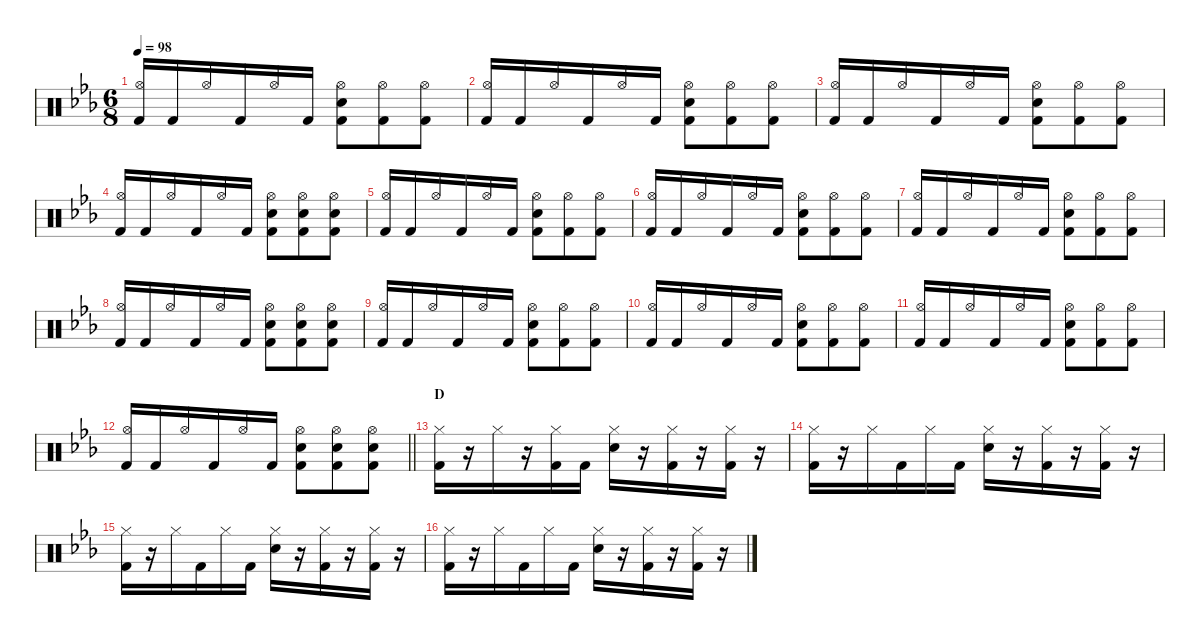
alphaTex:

\defaultSystemsLayout 4
\hideDynamics
\bracketExtendMode nobrackets
\singleTrackTrackNamePolicy hidden
\multiTrackTrackNamePolicy hidden
\firstSystemTrackNameMode fullname
\firstSystemTrackNameOrientation horizontal
\otherSystemsTrackNameOrientation horizontal
\track ("Gene Hogland" "drm.") {instrument percussion}
\staff {score}
\articulation defaults
\ts (6 8)
\tempo 98
\clef neutral
\ks eb
("Hi-Hat (open)"{acc forcenatural} "Kick (hit) 2"{acc forcenatural}).16{dy f beam Up} "Kick (hit) 2"{acc forcenatural}.16{beam Up} "Hi-Hat (open)"{acc forcenatural}.16{beam Up} "Kick (hit) 2"{acc forcenatural}.16{beam Up} "Hi-Hat (open)"{acc forcenatural}.16{beam Down} "Kick (hit) 2"{acc forcenatural}.16{beam Down} ("Hi-Hat (open)"{acc forcenatural} "Snare (hit) 2"{acc forcenatural} "Kick (hit) 2"{acc forcenatural}).8{beam Down} ("Hi-Hat (open)"{acc forcenatural} "Kick (hit) 2"{acc forcenatural}).8{beam Down} ("Hi-Hat (open)"{acc forcenatural} "Kick (hit) 2"{acc forcenatural}).8{beam Down} |
("Hi-Hat (open)"{acc forcenatural} "Kick (hit) 2"{acc forcenatural}).16{beam Up} "Kick (hit) 2"{acc forcenatural}.16{beam Up} "Hi-Hat (open)"{acc forcenatural}.16{beam Up} "Kick (hit) 2"{acc forcenatural}.16{beam Up} "Hi-Hat (open)"{acc forcenatural}.16{beam Down} "Kick (hit) 2"{acc forcenatural}.16{beam Down} ("Hi-Hat (open)"{acc forcenatural} "Snare (hit) 2"{acc forcenatural} "Kick (hit) 2"{acc forcenatural}).8{beam Down} ("Hi-Hat (open)"{acc forcenatural} "Kick (hit) 2"{acc forcenatural}).8{beam Down} ("Hi-Hat (open)"{acc forcenatural} "Kick (hit) 2"{acc forcenatural}).8{beam Down} |
("Hi-Hat (open)"{acc forcenatural} "Kick (hit) 2"{acc forcenatural}).16{beam Up} "Kick (hit) 2"{acc forcenatural}.16{beam Up} "Hi-Hat (open)"{acc forcenatural}.16{beam Up} "Kick (hit) 2"{acc forcenatural}.16{beam Up} "Hi-Hat (open)"{acc forcenatural}.16{beam Down} "Kick (hit) 2"{acc forcenatural}.16{beam Down} ("Hi-Hat (open)"{acc forcenatural} "Snare (hit) 2"{acc forcenatural} "Kick (hit) 2"{acc forcenatural}).8{beam Down} ("Hi-Hat (open)"{acc forcenatural} "Kick (hit) 2"{acc forcenatural}).8{beam Down} ("Hi-Hat (open)"{acc forcenatural} "Kick (hit) 2"{acc forcenatural}).8{beam Down} |
("Hi-Hat (open)"{acc forcenatural} "Kick (hit) 2"{acc forcenatural}).16{beam Up} "Kick (hit) 2"{acc forcenatural}.16{beam Up} "Hi-Hat (open)"{acc forcenatural}.16{beam Up} "Kick (hit) 2"{acc forcenatural}.16{beam Up} "Hi-Hat (open)"{acc forcenatural}.16{beam Down} "Kick (hit) 2"{acc forcenatural}.16{beam Down} ("Hi-Hat (open)"{acc forcenatural} "Snare (hit) 2"{acc forcenatural} "Kick (hit) 2"{acc forcenatural}).8{beam Down} ("Hi-Hat (open)"{acc forcenatural} "Snare (hit) 2"{acc forcenatural} "Kick (hit) 2"{acc forcenatural}).8{beam Down} ("Hi-Hat (open)"{acc forcenatural} "Snare (hit) 2"{acc forcenatural} "Kick (hit) 2"{acc forcenatural}).8{beam Down} |
("Hi-Hat (open)"{acc forcenatural} "Kick (hit) 2"{acc forcenatural}).16{beam Up} "Kick (hit) 2"{acc forcenatural}.16{beam Up} "Hi-Hat (open)"{acc forcenatural}.16{beam Up} "Kick (hit) 2"{acc forcenatural}.16{beam Up} "Hi-Hat (open)"{acc forcenatural}.16{beam Down} "Kick (hit) 2"{acc forcenatural}.16{beam Down} ("Hi-Hat (open)"{acc forcenatural} "Snare (hit) 2"{acc forcenatural} "Kick (hit) 2"{acc forcenatural}).8{beam Down} ("Hi-Hat (open)"{acc forcenatural} "Kick (hit) 2"{acc forcenatural}).8{beam Down} ("Hi-Hat (open)"{acc forcenatural} "Kick (hit) 2"{acc forcenatural}).8{beam Down} |
("Hi-Hat (open)"{acc forcenatural} "Kick (hit) 2"{acc forcenatural}).16{beam Up} "Kick (hit) 2"{acc forcenatural}.16{beam Up} "Hi-Hat (open)"{acc forcenatural}.16{beam Up} "Kick (hit) 2"{acc forcenatural}.16{beam Up} "Hi-Hat (open)"{acc forcenatural}.16{beam Down} "Kick (hit) 2"{acc forcenatural}.16{beam Down} ("Hi-Hat (open)"{acc forcenatural} "Snare (hit) 2"{acc forcenatural} "Kick (hit) 2"{acc forcenatural}).8{beam Down} ("Hi-Hat (open)"{acc forcenatural} "Kick (hit) 2"{acc forcenatural}).8{beam Down} ("Hi-Hat (open)"{acc forcenatural} "Kick (hit) 2"{acc forcenatural}).8{beam Down} |
("Hi-Hat (open)"{acc forcenatural} "Kick (hit) 2"{acc forcenatural}).16{beam Up} "Kick (hit) 2"{acc forcenatural}.16{beam Up} "Hi-Hat (open)"{acc forcenatural}.16{beam Up} "Kick (hit) 2"{acc forcenatural}.16{beam Up} "Hi-Hat (open)"{acc forcenatural}.16{beam Down} "Kick (hit) 2"{acc forcenatural}.16{beam Down} ("Hi-Hat (open)"{acc forcenatural} "Snare (hit) 2"{acc forcenatural} "Kick (hit) 2"{acc forcenatural}).8{beam Down} ("Hi-Hat (open)"{acc forcenatural} "Kick (hit) 2"{acc forcenatural}).8{beam Down} ("Hi-Hat (open)"{acc forcenatural} "Kick (hit) 2"{acc forcenatural}).8{beam Down} |
("Hi-Hat (open)"{acc forcenatural} "Kick (hit) 2"{acc forcenatural}).16{beam Up} "Kick (hit) 2"{acc forcenatural}.16{beam Up} "Hi-Hat (open)"{acc forcenatural}.16{beam Up} "Kick (hit) 2"{acc forcenatural}.16{beam Up} "Hi-Hat (open)"{acc forcenatural}.16{beam Down} "Kick (hit) 2"{acc forcenatural}.16{beam Down} ("Hi-Hat (open)"{acc forcenatural} "Snare (hit) 2"{acc forcenatural} "Kick (hit) 2"{acc forcenatural}).8{beam Down} ("Hi-Hat (open)"{acc forcenatural} "Snare (hit) 2"{acc forcenatural} "Kick (hit) 2"{acc forcenatural}).8{beam Down} ("Hi-Hat (open)"{acc forcenatural} "Snare (hit) 2"{acc forcenatural} "Kick (hit) 2"{acc forcenatural}).8{beam Down} |
("Hi-Hat (open)"{acc forcenatural} "Kick (hit) 2"{acc forcenatural}).16{beam Up} "Kick (hit) 2"{acc forcenatural}.16{beam Up} "Hi-Hat (open)"{acc forcenatural}.16{beam Up} "Kick (hit) 2"{acc forcenatural}.16{beam Up} "Hi-Hat (open)"{acc forcenatural}.16{beam Down} "Kick (hit) 2"{acc forcenatural}.16{beam Down} ("Hi-Hat (open)"{acc forcenatural} "Snare (hit) 2"{acc forcenatural} "Kick (hit) 2"{acc forcenatural}).8{beam Down} ("Hi-Hat (open)"{acc forcenatural} "Kick (hit) 2"{acc forcenatural}).8{beam Down} ("Hi-Hat (open)"{acc forcenatural} "Kick (hit) 2"{acc forcenatural}).8{beam Down} |
("Hi-Hat (open)"{acc forcenatural} "Kick (hit) 2"{acc forcenatural}).16{beam Up} "Kick (hit) 2"{acc forcenatural}.16{beam Up} "Hi-Hat (open)"{acc forcenatural}.16{beam Up} "Kick (hit) 2"{acc forcenatural}.16{beam Up} "Hi-Hat (open)"{acc forcenatural}.16{beam Down} "Kick (hit) 2"{acc forcenatural}.16{beam Down} ("Hi-Hat (open)"{acc forcenatural} "Snare (hit) 2"{acc forcenatural} "Kick (hit) 2"{acc forcenatural}).8{beam Down} ("Hi-Hat (open)"{acc forcenatural} "Kick (hit) 2"{acc forcenatural}).8{beam Down} ("Hi-Hat (open)"{acc forcenatural} "Kick (hit) 2"{acc forcenatural}).8{beam Down} |
("Hi-Hat (open)"{acc forcenatural} "Kick (hit) 2"{acc forcenatural}).16{beam Up} "Kick (hit) 2"{acc forcenatural}.16{beam Up} "Hi-Hat (open)"{acc forcenatural}.16{beam Up} "Kick (hit) 2"{acc forcenatural}.16{beam Up} "Hi-Hat (open)"{acc forcenatural}.16{beam Down} "Kick (hit) 2"{acc forcenatural}.16{beam Down} ("Hi-Hat (open)"{acc forcenatural} "Snare (hit) 2"{acc forcenatural} "Kick (hit) 2"{acc forcenatural}).8{beam Down} ("Hi-Hat (open)"{acc forcenatural} "Kick (hit) 2"{acc forcenatural}).8{beam Down} ("Hi-Hat (open)"{acc forcenatural} "Kick (hit) 2"{acc forcenatural}).8{beam Down} |
\barLineRight lightlight
("Hi-Hat (open)"{acc forcenatural} "Kick (hit) 2"{acc forcenatural}).16{beam Up} "Kick (hit) 2"{acc forcenatural}.16{beam Up} "Hi-Hat (open)"{acc forcenatural}.16{beam Up} "Kick (hit) 2"{acc forcenatural}.16{beam Up} "Hi-Hat (open)"{acc forcenatural}.16{beam Down} "Kick (hit) 2"{acc forcenatural}.16{beam Down} ("Hi-Hat (open)"{acc forcenatural} "Snare (hit) 2"{acc forcenatural} "Kick (hit) 2"{acc forcenatural}).8{beam Down} ("Hi-Hat (open)"{acc forcenatural} "Snare (hit) 2"{acc forcenatural} "Kick (hit) 2"{acc forcenatural}).8{beam Down} ("Hi-Hat (open)"{acc forcenatural} "Snare (hit) 2"{acc forcenatural} "Kick (hit) 2"{acc forcenatural}).8{beam Down} |
\section ("" "D")
("Hi-Hat (closed)"{acc forcenatural} "Kick (hit) 2"{acc forcenatural}).16{beam Down} r.16{beam Down} "Hi-Hat (closed)"{acc forcenatural}.16{beam Down} r.16{beam Down} ("Hi-Hat (closed)"{acc forcenatural} "Kick (hit) 2"{acc forcenatural}).16{beam Down} "Kick (hit) 2"{acc forcenatural}.16{beam Down} ("Hi-Hat (closed)"{acc forcenatural} "Snare (hit) 2"{acc forcenatural}).16{beam Down} r.16{beam Down} ("Hi-Hat (closed)"{acc forcenatural} "Kick (hit) 2"{acc forcenatural}).16{beam Down} r.16{beam Down} ("Hi-Hat (closed)"{acc forcenatural} "Kick (hit) 2"{acc forcenatural}).16{beam Down} r.16{beam Down} |
("Hi-Hat (closed)"{acc forcenatural} "Kick (hit) 2"{acc forcenatural}).16{beam Down} r.16{beam Down} "Hi-Hat (closed)"{acc forcenatural}.16{beam Down} "Kick (hit) 2"{acc forcenatural}.16{beam Down} "Hi-Hat (closed)"{acc forcenatural}.16{beam Down} "Kick (hit) 2"{acc forcenatural}.16{beam Down} ("Hi-Hat (closed)"{acc forcenatural} "Snare (hit) 2"{acc forcenatural}).16{beam Down} r.16{beam Down} ("Hi-Hat (closed)"{acc forcenatural} "Kick (hit) 2"{acc forcenatural}).16{beam Down} r.16{beam Down} ("Hi-Hat (closed)"{acc forcenatural} "Kick (hit) 2"{acc forcenatural}).16{beam Down} r.16{beam Down} |
("Hi-Hat (closed)"{acc forcenatural} "Kick (hit) 2"{acc forcenatural}).16{beam Down} r.16{beam Down} "Hi-Hat (closed)"{acc forcenatural}.16{beam Down} "Kick (hit) 2"{acc forcenatural}.16{beam Down} "Hi-Hat (closed)"{acc forcenatural}.16{beam Down} "Kick (hit) 2"{acc forcenatural}.16{beam Down} ("Hi-Hat (closed)"{acc forcenatural} "Snare (hit) 2"{acc forcenatural}).16{beam Down} r.16{beam Down} ("Hi-Hat (closed)"{acc forcenatural} "Kick (hit) 2"{acc forcenatural}).16{beam Down} r.16{beam Down} ("Hi-Hat (closed)"{acc forcenatural} "Kick (hit) 2"{acc forcenatural}).16{beam Down} r.16{beam Down} |
("Hi-Hat (closed)"{acc forcenatural} "Kick (hit) 2"{acc forcenatural}).16{beam Down} r.16{beam Down} "Hi-Hat (closed)"{acc forcenatural}.16{beam Down} "Kick (hit) 2"{acc forcenatural}.16{beam Down} "Hi-Hat (closed)"{acc forcenatural}.16{beam Down} "Kick (hit) 2"{acc forcenatural}.16{beam Down} ("Hi-Hat (closed)"{acc forcenatural} "Snare (hit) 2"{acc forcenatural}).16{beam Down} r.16{beam Down} ("Hi-Hat (closed)"{acc forcenatural} "Kick (hit) 2"{acc forcenatural}).16{beam Down} r.16{beam Down} ("Hi-Hat (closed)"{acc forcenatural} "Kick (hit) 2"{acc forcenatural}).16{beam Down} r.16{beam Down}
